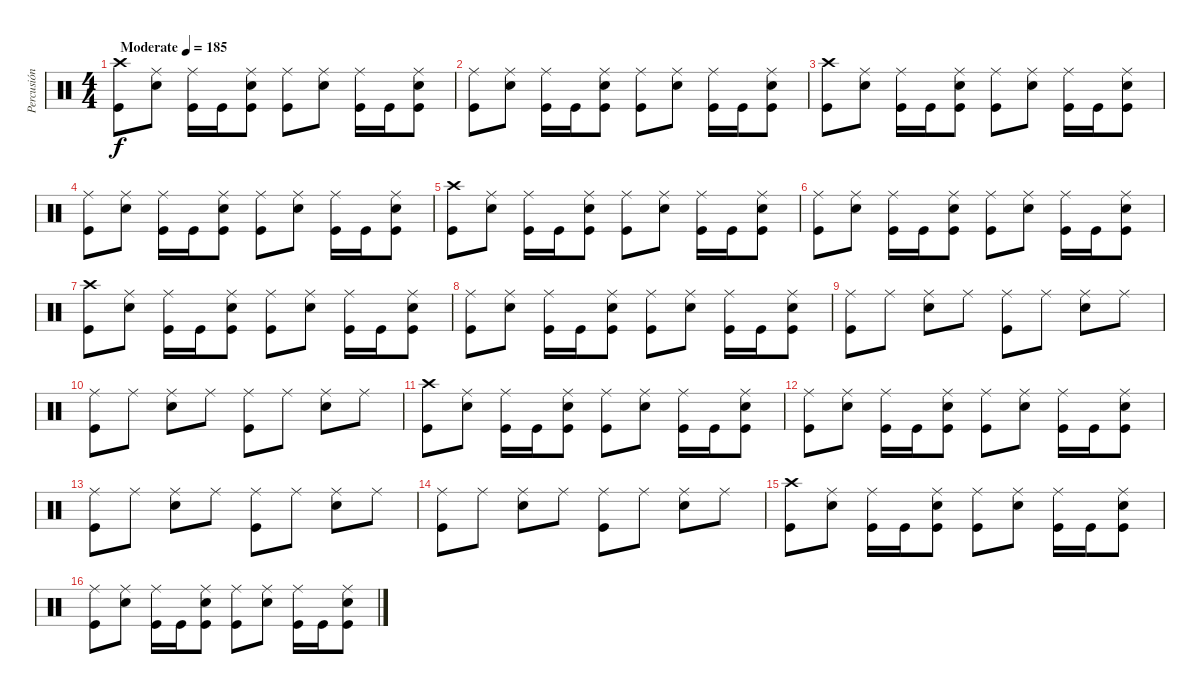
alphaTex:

\track ("Percusión" "Percusión") {instrument percussion}
\staff {score}
\articulation defaults
\ts (4 4)
\tempo (185 "Moderate")
\clef neutral
\ks c
("Kick (hit)" "Crash high (hit)").8{dy f} ("Snare (hit) 2" "Ride (middle)").8 ("Kick (hit)" "Ride (middle)").16 "Kick (hit)".16 ("Kick (hit)" "Ride (middle)" "Snare (hit) 2").8 ("Kick (hit)" "Ride (middle)").8 ("Snare (hit) 2" "Ride (middle)").8 ("Kick (hit)" "Ride (middle)").16 "Kick (hit)".16 ("Kick (hit)" "Ride (middle)" "Snare (hit) 2").8 |
("Kick (hit)" "Ride (middle)").8 ("Snare (hit) 2" "Ride (middle)").8 ("Kick (hit)" "Ride (middle)").16 "Kick (hit)".16 ("Kick (hit)" "Ride (middle)" "Snare (hit) 2").8 ("Kick (hit)" "Ride (middle)").8 ("Snare (hit) 2" "Ride (middle)").8 ("Kick (hit)" "Ride (middle)").16 "Kick (hit)".16 ("Kick (hit)" "Ride (middle)" "Snare (hit) 2").8 |
("Kick (hit)" "Crash high (hit)").8 ("Snare (hit) 2" "Ride (middle)").8 ("Kick (hit)" "Ride (middle)").16 "Kick (hit)".16 ("Kick (hit)" "Ride (middle)" "Snare (hit) 2").8 ("Kick (hit)" "Ride (middle)").8 ("Snare (hit) 2" "Ride (middle)").8 ("Kick (hit)" "Ride (middle)").16 "Kick (hit)".16 ("Kick (hit)" "Ride (middle)" "Snare (hit) 2").8 |
("Kick (hit)" "Ride (middle)").8 ("Snare (hit) 2" "Ride (middle)").8 ("Kick (hit)" "Ride (middle)").16 "Kick (hit)".16 ("Kick (hit)" "Ride (middle)" "Snare (hit) 2").8 ("Kick (hit)" "Ride (middle)").8 ("Snare (hit) 2" "Ride (middle)").8 ("Kick (hit)" "Ride (middle)").16 "Kick (hit)".16 ("Kick (hit)" "Ride (middle)" "Snare (hit) 2").8 |
("Kick (hit)" "Crash high (hit)").8 ("Snare (hit) 2" "Ride (middle)").8 ("Kick (hit)" "Ride (middle)").16 "Kick (hit)".16 ("Kick (hit)" "Ride (middle)" "Snare (hit) 2").8 ("Kick (hit)" "Ride (middle)").8 ("Snare (hit) 2" "Ride (middle)").8 ("Kick (hit)" "Ride (middle)").16 "Kick (hit)".16 ("Kick (hit)" "Ride (middle)" "Snare (hit) 2").8 |
("Kick (hit)" "Ride (middle)").8 ("Snare (hit) 2" "Ride (middle)").8 ("Kick (hit)" "Ride (middle)").16 "Kick (hit)".16 ("Kick (hit)" "Ride (middle)" "Snare (hit) 2").8 ("Kick (hit)" "Ride (middle)").8 ("Snare (hit) 2" "Ride (middle)").8 ("Kick (hit)" "Ride (middle)").16 "Kick (hit)".16 ("Kick (hit)" "Ride (middle)" "Snare (hit) 2").8 |
("Kick (hit)" "Crash high (hit)").8 ("Snare (hit) 2" "Ride (middle)").8 ("Kick (hit)" "Ride (middle)").16 "Kick (hit)".16 ("Kick (hit)" "Ride (middle)" "Snare (hit) 2").8 ("Kick (hit)" "Ride (middle)").8 ("Snare (hit) 2" "Ride (middle)").8 ("Kick (hit)" "Ride (middle)").16 "Kick (hit)".16 ("Kick (hit)" "Ride (middle)" "Snare (hit) 2").8 |
("Kick (hit)" "Ride (middle)").8 ("Snare (hit) 2" "Ride (middle)").8 ("Kick (hit)" "Ride (middle)").16 "Kick (hit)".16 ("Kick (hit)" "Ride (middle)" "Snare (hit) 2").8 ("Kick (hit)" "Ride (middle)").8 ("Snare (hit) 2" "Ride (middle)").8 ("Kick (hit)" "Ride (middle)").16 "Kick (hit)".16 ("Kick (hit)" "Ride (middle)" "Snare (hit) 2").8 |
("Kick (hit)" "Ride (middle)").8 "Ride (middle)".8 ("Ride (middle)" "Snare (hit) 2").8 "Ride (middle)".8 ("Ride (middle)" "Kick (hit)").8 "Ride (middle)".8 ("Ride (middle)" "Snare (hit) 2").8 "Ride (middle)".8 |
("Ride (middle)" "Kick (hit)").8 "Ride (middle)".8 ("Ride (middle)" "Snare (hit) 2").8 "Ride (middle)".8 ("Ride (middle)" "Kick (hit)").8 "Ride (middle)".8 ("Ride (middle)" "Snare (hit) 2").8 "Ride (middle)".8 |
("Kick (hit)" "Crash high (hit)").8 ("Snare (hit) 2" "Ride (middle)").8 ("Kick (hit)" "Ride (middle)").16 "Kick (hit)".16 ("Kick (hit)" "Ride (middle)" "Snare (hit) 2").8 ("Kick (hit)" "Ride (middle)").8 ("Snare (hit) 2" "Ride (middle)").8 ("Kick (hit)" "Ride (middle)").16 "Kick (hit)".16 ("Kick (hit)" "Ride (middle)" "Snare (hit) 2").8 |
("Kick (hit)" "Ride (middle)").8 ("Snare (hit) 2" "Ride (middle)").8 ("Kick (hit)" "Ride (middle)").16 "Kick (hit)".16 ("Kick (hit)" "Ride (middle)" "Snare (hit) 2").8 ("Kick (hit)" "Ride (middle)").8 ("Snare (hit) 2" "Ride (middle)").8 ("Kick (hit)" "Ride (middle)").16 "Kick (hit)".16 ("Kick (hit)" "Ride (middle)" "Snare (hit) 2").8 |
("Kick (hit)" "Ride (middle)").8 "Ride (middle)".8 ("Ride (middle)" "Snare (hit) 2").8 "Ride (middle)".8 ("Ride (middle)" "Kick (hit)").8 "Ride (middle)".8 ("Ride (middle)" "Snare (hit) 2").8 "Ride (middle)".8 |
("Ride (middle)" "Kick (hit)").8 "Ride (middle)".8 ("Ride (middle)" "Snare (hit) 2").8 "Ride (middle)".8 ("Ride (middle)" "Kick (hit)").8 "Ride (middle)".8 ("Ride (middle)" "Snare (hit) 2").8 "Ride (middle)".8 |
("Kick (hit)" "Crash high (hit)").8 ("Snare (hit) 2" "Ride (middle)").8 ("Kick (hit)" "Ride (middle)").16 "Kick (hit)".16 ("Kick (hit)" "Ride (middle)" "Snare (hit) 2").8 ("Kick (hit)" "Ride (middle)").8 ("Snare (hit) 2" "Ride (middle)").8 ("Kick (hit)" "Ride (middle)").16 "Kick (hit)".16 ("Kick (hit)" "Ride (middle)" "Snare (hit) 2").8 |
("Kick (hit)" "Ride (middle)").8 ("Snare (hit) 2" "Ride (middle)").8 ("Kick (hit)" "Ride (middle)").16 "Kick (hit)".16 ("Kick (hit)" "Ride (middle)" "Snare (hit) 2").8 ("Kick (hit)" "Ride (middle)").8 ("Snare (hit) 2" "Ride (middle)").8 ("Kick (hit)" "Ride (middle)").16 "Kick (hit)".16 ("Kick (hit)" "Ride (middle)" "Snare (hit) 2").8
